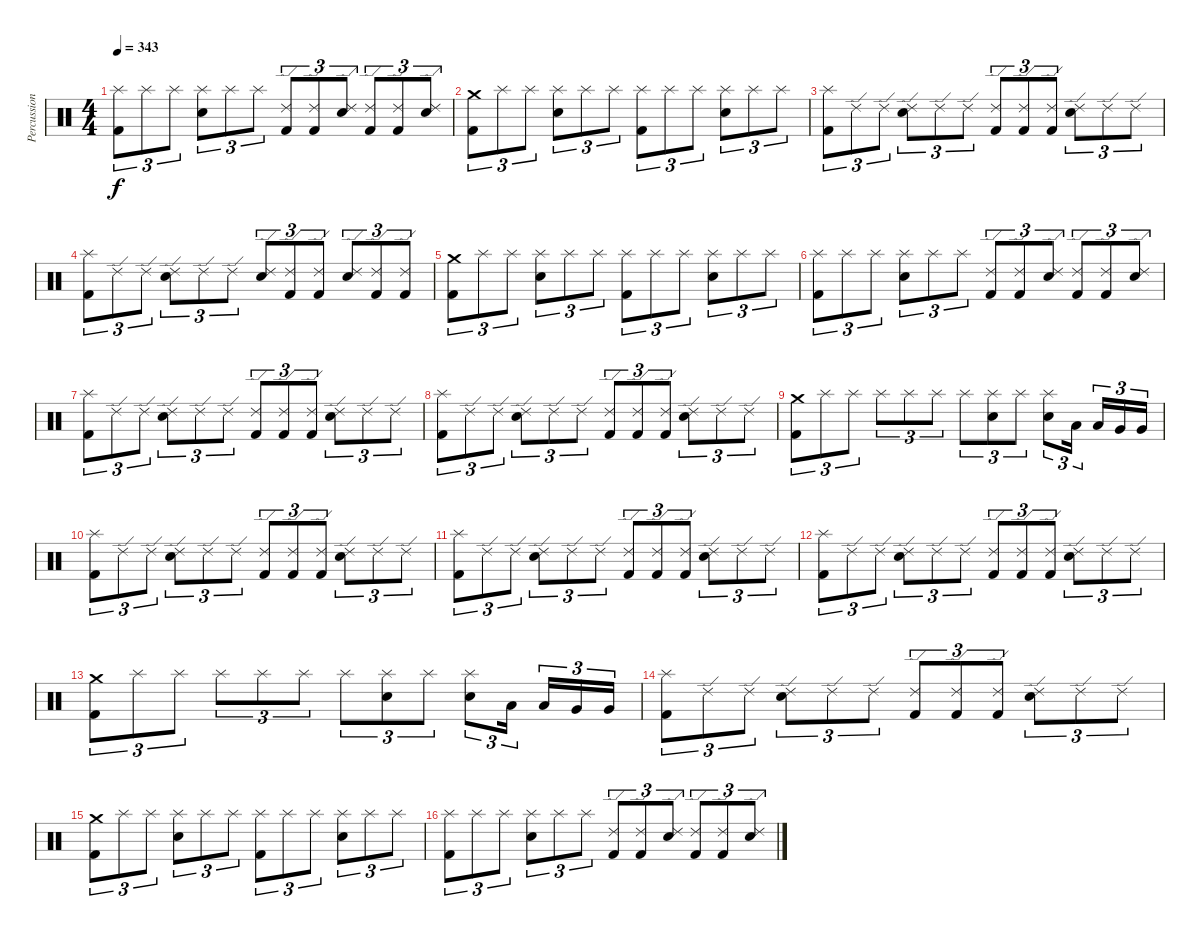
\track ("Percussion" "Percussion") {instrument percussion}
\staff {score}
\articulation defaults
\ts (4 4)
\tempo 343
\clef neutral
\ks c
("Splash (hit)" "Kick (hit) 2").8{tu (3 2) dy f} "Splash (hit)".8{tu (3 2)} "Splash (hit)".8{tu (3 2)} ("Splash (hit)" "Snare (hit) 2").8{tu (3 2)} "Splash (hit)".8{tu (3 2)} "Splash (hit)".8{tu (3 2)} ("Ride (edge) 2" "Kick (hit) 2").8{tu (3 2)} ("Ride (edge) 2" "Kick (hit) 2").8{tu (3 2)} ("Ride (edge) 2" "Snare (hit) 2").8{tu (3 2)} ("Ride (edge) 2" "Kick (hit) 2").8{tu (3 2)} ("Ride (edge) 2" "Kick (hit) 2").8{tu (3 2)} ("Ride (edge) 2" "Snare (hit) 2").8{tu (3 2)} |
("Crash medium (hit)" "Kick (hit) 2").8{tu (3 2)} "Splash (hit)".8{tu (3 2)} "Splash (hit)".8{tu (3 2)} ("Splash (hit)" "Snare (hit) 2").8{tu (3 2)} "Splash (hit)".8{tu (3 2)} "Splash (hit)".8{tu (3 2)} ("Splash (hit)" "Kick (hit) 2").8{tu (3 2)} "Splash (hit)".8{tu (3 2)} "Splash (hit)".8{tu (3 2)} ("Splash (hit)" "Snare (hit) 2").8{tu (3 2)} "Splash (hit)".8{tu (3 2)} "Splash (hit)".8{tu (3 2)} |
("Splash (hit)" "Kick (hit) 2").8{tu (3 2)} "Ride (edge) 2".8{tu (3 2)} "Ride (edge) 2".8{tu (3 2)} ("Ride (edge) 2" "Snare (hit) 2").8{tu (3 2)} "Ride (edge) 2".8{tu (3 2)} "Ride (edge) 2".8{tu (3 2)} ("Ride (edge) 2" "Kick (hit) 2").8{tu (3 2)} ("Ride (edge) 2" "Kick (hit) 2").8{tu (3 2)} ("Ride (edge) 2" "Kick (hit) 2").8{tu (3 2)} ("Ride (edge) 2" "Snare (hit) 2").8{tu (3 2)} "Ride (edge) 2".8{tu (3 2)} "Ride (edge) 2".8{tu (3 2)} |
("Splash (hit)" "Kick (hit) 2").8{tu (3 2)} "Ride (edge) 2".8{tu (3 2)} "Ride (edge) 2".8{tu (3 2)} ("Ride (edge) 2" "Snare (hit) 2").8{tu (3 2)} "Ride (edge) 2".8{tu (3 2)} "Ride (edge) 2".8{tu (3 2)} ("Ride (edge) 2" "Snare (hit) 2").8{tu (3 2)} ("Ride (edge) 2" "Kick (hit) 2").8{tu (3 2)} ("Ride (edge) 2" "Kick (hit) 2").8{tu (3 2)} ("Ride (edge) 2" "Snare (hit) 2").8{tu (3 2)} ("Ride (edge) 2" "Kick (hit) 2").8{tu (3 2)} ("Ride (edge) 2" "Kick (hit) 2").8{tu (3 2)} |
("Crash medium (hit)" "Kick (hit) 2").8{tu (3 2)} "Splash (hit)".8{tu (3 2)} "Splash (hit)".8{tu (3 2)} ("Splash (hit)" "Snare (hit) 2").8{tu (3 2)} "Splash (hit)".8{tu (3 2)} "Splash (hit)".8{tu (3 2)} ("Splash (hit)" "Kick (hit) 2").8{tu (3 2)} "Splash (hit)".8{tu (3 2)} "Splash (hit)".8{tu (3 2)} ("Splash (hit)" "Snare (hit) 2").8{tu (3 2)} "Splash (hit)".8{tu (3 2)} "Splash (hit)".8{tu (3 2)} |
("Splash (hit)" "Kick (hit) 2").8{tu (3 2)} "Splash (hit)".8{tu (3 2)} "Splash (hit)".8{tu (3 2)} ("Splash (hit)" "Snare (hit) 2").8{tu (3 2)} "Splash (hit)".8{tu (3 2)} "Splash (hit)".8{tu (3 2)} ("Ride (edge) 2" "Kick (hit) 2").8{tu (3 2)} ("Ride (edge) 2" "Kick (hit) 2").8{tu (3 2)} ("Ride (edge) 2" "Snare (hit) 2").8{tu (3 2)} ("Ride (edge) 2" "Kick (hit) 2").8{tu (3 2)} ("Ride (edge) 2" "Kick (hit) 2").8{tu (3 2)} ("Ride (edge) 2" "Snare (hit) 2").8{tu (3 2)} |
("Splash (hit)" "Kick (hit) 2").8{tu (3 2)} "Ride (edge) 2".8{tu (3 2)} "Ride (edge) 2".8{tu (3 2)} ("Ride (edge) 2" "Snare (hit) 2").8{tu (3 2)} "Ride (edge) 2".8{tu (3 2)} "Ride (edge) 2".8{tu (3 2)} ("Ride (edge) 2" "Kick (hit) 2").8{tu (3 2)} ("Ride (edge) 2" "Kick (hit) 2").8{tu (3 2)} ("Ride (edge) 2" "Kick (hit) 2").8{tu (3 2)} ("Ride (edge) 2" "Snare (hit) 2").8{tu (3 2)} "Ride (edge) 2".8{tu (3 2)} "Ride (edge) 2".8{tu (3 2)} |
("Splash (hit)" "Kick (hit) 2").8{tu (3 2)} "Ride (edge) 2".8{tu (3 2)} "Ride (edge) 2".8{tu (3 2)} ("Ride (edge) 2" "Snare (hit) 2").8{tu (3 2)} "Ride (edge) 2".8{tu (3 2)} "Ride (edge) 2".8{tu (3 2)} ("Ride (edge) 2" "Kick (hit) 2").8{tu (3 2)} ("Ride (edge) 2" "Kick (hit) 2").8{tu (3 2)} ("Ride (edge) 2" "Kick (hit) 2").8{tu (3 2)} ("Ride (edge) 2" "Snare (hit) 2").8{tu (3 2)} "Ride (edge) 2".8{tu (3 2)} "Ride (edge) 2".8{tu (3 2)} |
("Crash medium (hit)" "Kick (hit) 2").8{tu (3 2)} "Splash (hit)".8{tu (3 2)} "Splash (hit)".8{tu (3 2)} "Splash (hit)".8{tu (3 2)} "Splash (hit)".8{tu (3 2)} "Splash (hit)".8{tu (3 2)} "Splash (hit)".8{tu (3 2)} ("Splash (hit)" "Snare (hit) 2").8{tu (3 2)} "Splash (hit)".8{tu (3 2)} ("Splash (hit)" "Snare (hit) 2").8{tu (3 2)} "Low Tom (hit)".16{tu (3 2)} "Low Tom (hit)".16{tu (3 2)} "Very Low Tom (hit)".16{tu (3 2)} "Very Low Tom (hit)".16{tu (3 2)} |
("Splash (hit)" "Kick (hit) 2").8{tu (3 2)} "Ride (edge) 2".8{tu (3 2)} "Ride (edge) 2".8{tu (3 2)} ("Ride (edge) 2" "Snare (hit) 2").8{tu (3 2)} "Ride (edge) 2".8{tu (3 2)} "Ride (edge) 2".8{tu (3 2)} ("Ride (edge) 2" "Kick (hit) 2").8{tu (3 2)} ("Ride (edge) 2" "Kick (hit) 2").8{tu (3 2)} ("Ride (edge) 2" "Kick (hit) 2").8{tu (3 2)} ("Ride (edge) 2" "Snare (hit) 2").8{tu (3 2)} "Ride (edge) 2".8{tu (3 2)} "Ride (edge) 2".8{tu (3 2)} |
("Splash (hit)" "Kick (hit) 2").8{tu (3 2)} "Ride (edge) 2".8{tu (3 2)} "Ride (edge) 2".8{tu (3 2)} ("Ride (edge) 2" "Snare (hit) 2").8{tu (3 2)} "Ride (edge) 2".8{tu (3 2)} "Ride (edge) 2".8{tu (3 2)} ("Ride (edge) 2" "Kick (hit) 2").8{tu (3 2)} ("Ride (edge) 2" "Kick (hit) 2").8{tu (3 2)} ("Ride (edge) 2" "Kick (hit) 2").8{tu (3 2)} ("Ride (edge) 2" "Snare (hit) 2").8{tu (3 2)} "Ride (edge) 2".8{tu (3 2)} "Ride (edge) 2".8{tu (3 2)} |
("Splash (hit)" "Kick (hit) 2").8{tu (3 2)} "Ride (edge) 2".8{tu (3 2)} "Ride (edge) 2".8{tu (3 2)} ("Ride (edge) 2" "Snare (hit) 2").8{tu (3 2)} "Ride (edge) 2".8{tu (3 2)} "Ride (edge) 2".8{tu (3 2)} ("Ride (edge) 2" "Kick (hit) 2").8{tu (3 2)} ("Ride (edge) 2" "Kick (hit) 2").8{tu (3 2)} ("Ride (edge) 2" "Kick (hit) 2").8{tu (3 2)} ("Ride (edge) 2" "Snare (hit) 2").8{tu (3 2)} "Ride (edge) 2".8{tu (3 2)} "Ride (edge) 2".8{tu (3 2)} |
("Crash medium (hit)" "Kick (hit) 2").8{tu (3 2)} "Splash (hit)".8{tu (3 2)} "Splash (hit)".8{tu (3 2)} "Splash (hit)".8{tu (3 2)} "Splash (hit)".8{tu (3 2)} "Splash (hit)".8{tu (3 2)} "Splash (hit)".8{tu (3 2)} ("Splash (hit)" "Snare (hit) 2").8{tu (3 2)} "Splash (hit)".8{tu (3 2)} ("Splash (hit)" "Snare (hit) 2").8{tu (3 2)} "Low Tom (hit)".16{tu (3 2)} "Low Tom (hit)".16{tu (3 2)} "Very Low Tom (hit)".16{tu (3 2)} "Very Low Tom (hit)".16{tu (3 2)} |
("Splash (hit)" "Kick (hit) 2").8{tu (3 2)} "Ride (edge) 2".8{tu (3 2)} "Ride (edge) 2".8{tu (3 2)} ("Ride (edge) 2" "Snare (hit) 2").8{tu (3 2)} "Ride (edge) 2".8{tu (3 2)} "Ride (edge) 2".8{tu (3 2)} ("Ride (edge) 2" "Kick (hit) 2").8{tu (3 2)} ("Ride (edge) 2" "Kick (hit) 2").8{tu (3 2)} ("Ride (edge) 2" "Kick (hit) 2").8{tu (3 2)} ("Ride (edge) 2" "Snare (hit) 2").8{tu (3 2)} "Ride (edge) 2".8{tu (3 2)} "Ride (edge) 2".8{tu (3 2)} |
("Crash medium (hit)" "Kick (hit) 2").8{tu (3 2)} "Splash (hit)".8{tu (3 2)} "Splash (hit)".8{tu (3 2)} ("Splash (hit)" "Snare (hit) 2").8{tu (3 2)} "Splash (hit)".8{tu (3 2)} "Splash (hit)".8{tu (3 2)} ("Splash (hit)" "Kick (hit) 2").8{tu (3 2)} "Splash (hit)".8{tu (3 2)} "Splash (hit)".8{tu (3 2)} ("Splash (hit)" "Snare (hit) 2").8{tu (3 2)} "Splash (hit)".8{tu (3 2)} "Splash (hit)".8{tu (3 2)} |
("Splash (hit)" "Kick (hit) 2").8{tu (3 2)} "Splash (hit)".8{tu (3 2)} "Splash (hit)".8{tu (3 2)} ("Splash (hit)" "Snare (hit) 2").8{tu (3 2)} "Splash (hit)".8{tu (3 2)} "Splash (hit)".8{tu (3 2)} ("Ride (edge) 2" "Kick (hit) 2").8{tu (3 2)} ("Ride (edge) 2" "Kick (hit) 2").8{tu (3 2)} ("Ride (edge) 2" "Snare (hit) 2").8{tu (3 2)} ("Ride (edge) 2" "Kick (hit) 2").8{tu (3 2)} ("Ride (edge) 2" "Kick (hit) 2").8{tu (3 2)} ("Ride (edge) 2" "Snare (hit) 2").8{tu (3 2)}
